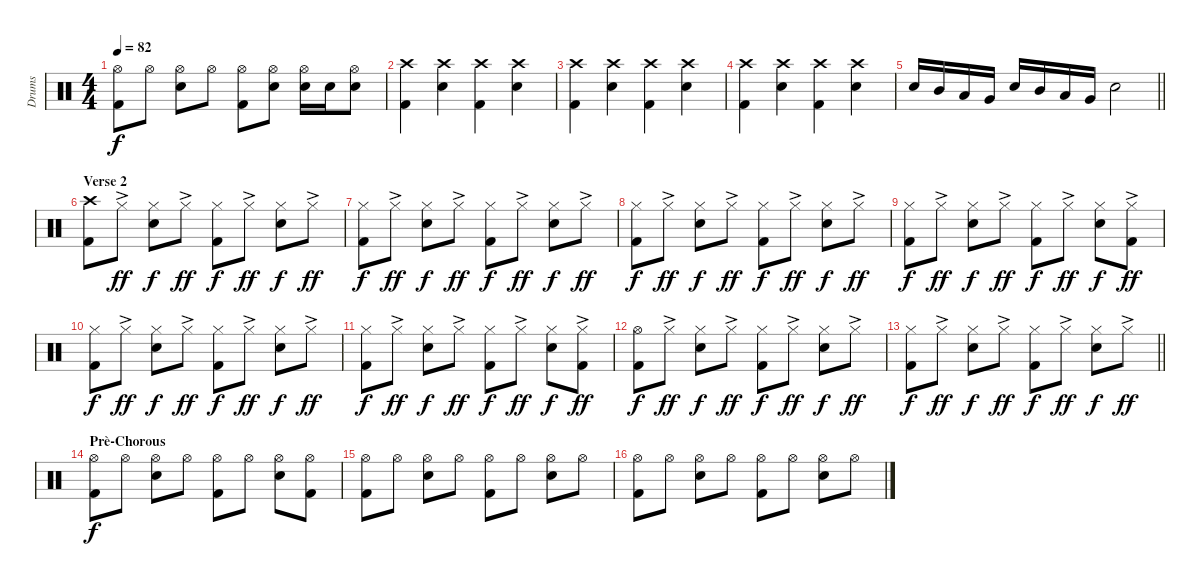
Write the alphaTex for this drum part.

\track ("Drums" "Drums") {instrument percussion}
\staff {score}
\articulation defaults
\ts (4 4)
\tempo 82
\clef neutral
\ks c
("Hi-Hat (open)" "Kick (hit) 2").8{dy f} "Hi-Hat (open)".8 ("Hi-Hat (open)" "Snare (hit) 2").8 "Hi-Hat (open)".8 ("Hi-Hat (open)" "Kick (hit) 2").8 ("Hi-Hat (open)" "Snare (hit) 2").8 ("Hi-Hat (open)" "Snare (hit) 2").16 "Snare (hit) 2".16 ("Hi-Hat (open)" "Snare (hit) 2").8 |
("Crash high (hit)" "Kick (hit) 2").4 ("Crash high (hit)" "Snare (hit) 2").4 ("Crash high (hit)" "Kick (hit) 2").4 ("Crash high (hit)" "Snare (hit) 2").4 |
("Crash high (hit)" "Kick (hit) 2").4 ("Crash high (hit)" "Snare (hit) 2").4 ("Crash high (hit)" "Kick (hit) 2").4 ("Crash high (hit)" "Snare (hit) 2").4 |
("Crash high (hit)" "Kick (hit) 2").4 ("Crash high (hit)" "Snare (hit) 2").4 ("Crash high (hit)" "Kick (hit) 2").4 ("Crash high (hit)" "Snare (hit) 2").4 |
\barLineRight lightlight "Snare (hit) 2".16 "Mid Tom (hit)".16 "Low Tom (hit)".16 "Very Low Tom (hit)".16 "Snare (hit) 2".16 "Mid Tom (hit)".16 "Low Tom (hit)".16 "Very Low Tom (hit)".16 "Snare (hit) 2".2
|
\section ("" "Verse 2")
("Crash high (hit)" "Kick (hit) 2").8 "Hi-Hat (closed)"{ac}.8{dy ff} ("Hi-Hat (closed)" "Snare (hit) 2").8{dy f} "Hi-Hat (closed)"{ac}.8{dy ff} ("Hi-Hat (closed)" "Kick (hit) 2").8{dy f} "Hi-Hat (closed)"{ac}.8{dy ff} ("Hi-Hat (closed)" "Snare (hit) 2").8{dy f} "Hi-Hat (closed)"{ac}.8{dy ff} |
("Hi-Hat (closed)" "Kick (hit) 2").8{dy f} "Hi-Hat (closed)"{ac}.8{dy ff} ("Hi-Hat (closed)" "Snare (hit) 2").8{dy f} "Hi-Hat (closed)"{ac}.8{dy ff} ("Hi-Hat (closed)" "Kick (hit) 2").8{dy f} "Hi-Hat (closed)"{ac}.8{dy ff} ("Hi-Hat (closed)" "Snare (hit) 2").8{dy f} "Hi-Hat (closed)"{ac}.8{dy ff} |
("Hi-Hat (closed)" "Kick (hit) 2").8{dy f} "Hi-Hat (closed)"{ac}.8{dy ff} ("Hi-Hat (closed)" "Snare (hit) 2").8{dy f} "Hi-Hat (closed)"{ac}.8{dy ff} ("Hi-Hat (closed)" "Kick (hit) 2").8{dy f} "Hi-Hat (closed)"{ac}.8{dy ff} ("Hi-Hat (closed)" "Snare (hit) 2").8{dy f} "Hi-Hat (closed)"{ac}.8{dy ff} |
("Hi-Hat (closed)" "Kick (hit) 2").8{dy f} "Hi-Hat (closed)"{ac}.8{dy ff} ("Hi-Hat (closed)" "Snare (hit) 2").8{dy f} "Hi-Hat (closed)"{ac}.8{dy ff} ("Hi-Hat (closed)" "Kick (hit) 2").8{dy f} "Hi-Hat (closed)"{ac}.8{dy ff} ("Hi-Hat (closed)" "Snare (hit) 2").8{dy f} ("Hi-Hat (closed)"{ac} "Kick (hit) 2").8{dy ff} |
("Hi-Hat (closed)" "Kick (hit) 2").8{dy f} "Hi-Hat (closed)"{ac}.8{dy ff} ("Hi-Hat (closed)" "Snare (hit) 2").8{dy f} "Hi-Hat (closed)"{ac}.8{dy ff} ("Hi-Hat (closed)" "Kick (hit) 2").8{dy f} "Hi-Hat (closed)"{ac}.8{dy ff} ("Hi-Hat (closed)" "Snare (hit) 2").8{dy f} "Hi-Hat (closed)"{ac}.8{dy ff} |
("Hi-Hat (closed)" "Kick (hit) 2").8{dy f} "Hi-Hat (closed)"{ac}.8{dy ff} ("Hi-Hat (closed)" "Snare (hit) 2").8{dy f} "Hi-Hat (closed)"{ac}.8{dy ff} ("Hi-Hat (closed)" "Kick (hit) 2").8{dy f} "Hi-Hat (closed)"{ac}.8{dy ff} ("Hi-Hat (closed)" "Snare (hit) 2").8{dy f} ("Hi-Hat (closed)"{ac} "Kick (hit) 2").8{dy ff} |
("Hi-Hat (open)" "Kick (hit) 2").8{dy f} "Hi-Hat (closed)"{ac}.8{dy ff} ("Hi-Hat (closed)" "Snare (hit) 2").8{dy f} "Hi-Hat (closed)"{ac}.8{dy ff} ("Hi-Hat (closed)" "Kick (hit) 2").8{dy f} "Hi-Hat (closed)"{ac}.8{dy ff} ("Hi-Hat (closed)" "Snare (hit) 2").8{dy f} "Hi-Hat (closed)"{ac}.8{dy ff} |
\barLineRight lightlight
("Hi-Hat (closed)" "Kick (hit) 2").8{dy f} "Hi-Hat (closed)"{ac}.8{dy ff} ("Hi-Hat (closed)" "Snare (hit) 2").8{dy f} "Hi-Hat (closed)"{ac}.8{dy ff} ("Hi-Hat (closed)" "Kick (hit) 2").8{dy f} "Hi-Hat (closed)"{ac}.8{dy ff} ("Hi-Hat (closed)" "Snare (hit) 2").8{dy f} "Hi-Hat (closed)"{ac}.8{dy ff} |
\section ("" "Prè-Chorous")
("Hi-Hat (open)" "Kick (hit) 2").8{dy f} "Hi-Hat (open)".8 ("Hi-Hat (open)" "Snare (hit) 2").8 "Hi-Hat (open)".8 ("Hi-Hat (open)" "Kick (hit) 2").8 "Hi-Hat (open)".8 ("Hi-Hat (open)" "Snare (hit) 2").8 ("Hi-Hat (open)" "Kick (hit) 2").8 |
("Hi-Hat (open)" "Kick (hit) 2").8 "Hi-Hat (open)".8 ("Hi-Hat (open)" "Snare (hit) 2").8 "Hi-Hat (open)".8 ("Hi-Hat (open)" "Kick (hit) 2").8 "Hi-Hat (open)".8 ("Hi-Hat (open)" "Snare (hit) 2").8 "Hi-Hat (open)".8 |
("Hi-Hat (open)" "Kick (hit) 2").8 "Hi-Hat (open)".8 ("Hi-Hat (open)" "Snare (hit) 2").8 "Hi-Hat (open)".8 ("Hi-Hat (open)" "Kick (hit) 2").8 "Hi-Hat (open)".8 ("Hi-Hat (open)" "Snare (hit) 2").8 "Hi-Hat (open)".8
